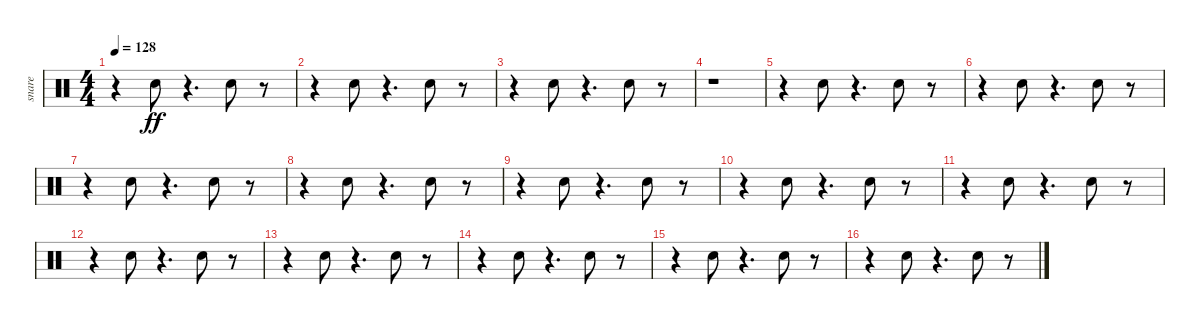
\track ("snare" "snare") {instrument percussion}
\staff {score}
\articulation defaults
\ts (4 4)
\tempo 128
\clef neutral
\ks c
r.4{dy ff} "Electric Snare (hit)".8 r.4{d} "Electric Snare (hit)".8 r.8 |
r.4 "Electric Snare (hit)".8 r.4{d} "Electric Snare (hit)".8 r.8 |
r.4 "Electric Snare (hit)".8 r.4{d} "Electric Snare (hit)".8 r.8 |
r.1 |
r.4 "Electric Snare (hit)".8 r.4{d} "Electric Snare (hit)".8 r.8 |
r.4 "Electric Snare (hit)".8 r.4{d} "Electric Snare (hit)".8 r.8 |
r.4 "Electric Snare (hit)".8 r.4{d} "Electric Snare (hit)".8 r.8 |
r.4 "Electric Snare (hit)".8 r.4{d} "Electric Snare (hit)".8 r.8 |
r.4 "Electric Snare (hit)".8 r.4{d} "Electric Snare (hit)".8 r.8 |
r.4 "Electric Snare (hit)".8 r.4{d} "Electric Snare (hit)".8 r.8 |
r.4 "Electric Snare (hit)".8 r.4{d} "Electric Snare (hit)".8 r.8 |
r.4 "Electric Snare (hit)".8 r.4{d} "Electric Snare (hit)".8 r.8 |
r.4 "Electric Snare (hit)".8 r.4{d} "Electric Snare (hit)".8 r.8 |
r.4 "Electric Snare (hit)".8 r.4{d} "Electric Snare (hit)".8 r.8 |
r.4 "Electric Snare (hit)".8 r.4{d} "Electric Snare (hit)".8 r.8 |
r.4 "Electric Snare (hit)".8 r.4{d} "Electric Snare (hit)".8 r.8
